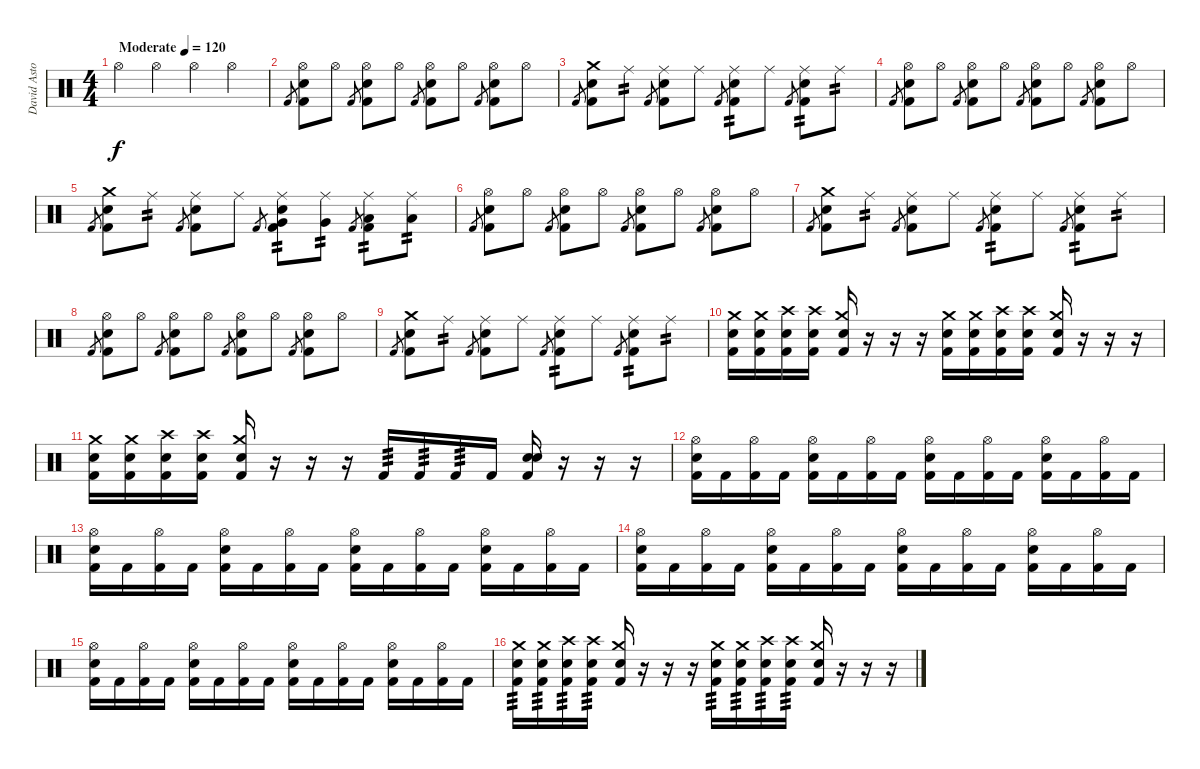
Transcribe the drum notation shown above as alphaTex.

\track ("David Astor" "David Asto") {instrument percussion}
\staff {score}
\articulation defaults
\ts (4 4)
\tempo (120 "Moderate")
\clef neutral
\ks c "Hi-Hat (open)".4{dy f} "Hi-Hat (open)".4 "Hi-Hat (open)".4 "Hi-Hat (open)".4
|
"Kick (hit) 2".8{gr} ("Hi-Hat (open)" "Electric Snare (hit)" "Kick (hit) 2").8 "Hi-Hat (open)".8 "Kick (hit) 2".8{gr} ("Hi-Hat (open)" "Electric Snare (hit)" "Kick (hit) 2").8 "Hi-Hat (open)".8 "Kick (hit) 2".8{gr} ("Hi-Hat (open)" "Electric Snare (hit)" "Kick (hit) 2").8 "Hi-Hat (open)".8 "Kick (hit) 2".8{gr} ("Hi-Hat (open)" "Electric Snare (hit)" "Kick (hit) 2").8 "Hi-Hat (open)".8 |
"Kick (hit) 2".8{gr} ("Crash medium (hit)" "Electric Snare (hit)" "Kick (hit) 2").8 "Ride (middle)".8{tp 2} "Kick (hit) 2".8{gr} ("Ride (middle)" "Electric Snare (hit)" "Kick (hit) 2").8 "Ride (middle)".8 "Kick (hit) 2".8{gr} ("Ride (middle)" "Electric Snare (hit)" "Kick (hit) 2").8{tp 2} "Ride (middle)".8 "Kick (hit) 2".8{gr} ("Ride (middle)" "Electric Snare (hit)" "Kick (hit) 2").8{tp 2} "Ride (middle)".8{tp 2} |
"Kick (hit) 2".8{gr} ("Hi-Hat (open)" "Electric Snare (hit)" "Kick (hit) 2").8 "Hi-Hat (open)".8 "Kick (hit) 2".8{gr} ("Hi-Hat (open)" "Electric Snare (hit)" "Kick (hit) 2").8 "Hi-Hat (open)".8 "Kick (hit) 2".8{gr} ("Hi-Hat (open)" "Electric Snare (hit)" "Kick (hit) 2").8 "Hi-Hat (open)".8 "Kick (hit) 2".8{gr} ("Hi-Hat (open)" "Electric Snare (hit)" "Kick (hit) 2").8 "Hi-Hat (open)".8 |
"Kick (hit) 2".8{gr} ("Crash medium (hit)" "Electric Snare (hit)" "Kick (hit) 2").8 "Ride (middle)".8{tp 2} "Kick (hit) 2".8{gr} ("Ride (middle)" "Electric Snare (hit)" "Kick (hit) 2").8 "Ride (middle)".8 "Kick (hit) 2".8{gr} ("Ride (middle)" "Very Low Tom (hit)" "Snare (hit) 2" "Kick (hit) 2").8{tp 2} ("Ride (middle)" "Very Low Tom (hit)").8{tp 2} "Kick (hit) 2".8{gr} ("Ride (middle)" "Low Tom (hit)" "Kick (hit) 2").8{tp 2} ("Ride (middle)" "Low Floor Tom (hit)").8{tp 2} |
"Kick (hit) 2".8{gr} ("Hi-Hat (open)" "Electric Snare (hit)" "Kick (hit) 2").8 "Hi-Hat (open)".8 "Kick (hit) 2".8{gr} ("Hi-Hat (open)" "Electric Snare (hit)" "Kick (hit) 2").8 "Hi-Hat (open)".8 "Kick (hit) 2".8{gr} ("Hi-Hat (open)" "Electric Snare (hit)" "Kick (hit) 2").8 "Hi-Hat (open)".8 "Kick (hit) 2".8{gr} ("Hi-Hat (open)" "Electric Snare (hit)" "Kick (hit) 2").8 "Hi-Hat (open)".8 |
"Kick (hit) 2".8{gr} ("Crash medium (hit)" "Electric Snare (hit)" "Kick (hit) 2").8 "Ride (middle)".8{tp 2} "Kick (hit) 2".8{gr} ("Ride (middle)" "Electric Snare (hit)" "Kick (hit) 2").8 "Ride (middle)".8 "Kick (hit) 2".8{gr} ("Ride (middle)" "Electric Snare (hit)" "Kick (hit) 2").8{tp 2} "Ride (middle)".8 "Kick (hit) 2".8{gr} ("Ride (middle)" "Electric Snare (hit)" "Kick (hit) 2").8{tp 2} "Ride (middle)".8{tp 2} |
"Kick (hit) 2".8{gr} ("Hi-Hat (open)" "Electric Snare (hit)" "Kick (hit) 2").8 "Hi-Hat (open)".8 "Kick (hit) 2".8{gr} ("Hi-Hat (open)" "Electric Snare (hit)" "Kick (hit) 2").8 "Hi-Hat (open)".8 "Kick (hit) 2".8{gr} ("Hi-Hat (open)" "Electric Snare (hit)" "Kick (hit) 2").8 "Hi-Hat (open)".8 "Kick (hit) 2".8{gr} ("Hi-Hat (open)" "Electric Snare (hit)" "Kick (hit) 2").8 "Hi-Hat (open)".8 |
"Kick (hit) 2".8{gr} ("Crash medium (hit)" "Electric Snare (hit)" "Kick (hit) 2").8 "Ride (middle)".8{tp 2} "Kick (hit) 2".8{gr} ("Ride (middle)" "Electric Snare (hit)" "Kick (hit) 2").8 "Ride (middle)".8 "Kick (hit) 2".8{gr} ("Ride (middle)" "Electric Snare (hit)" "Kick (hit) 2").8{tp 2} "Ride (middle)".8 "Kick (hit) 2".8{gr} ("Ride (middle)" "Electric Snare (hit)" "Kick (hit) 2").8{tp 2} "Ride (middle)".8{tp 2} |
("Crash medium (hit)" "Electric Snare (hit)" "Kick (hit) 2").16 ("Crash medium (hit)" "Electric Snare (hit)" "Kick (hit) 2").16 ("Crash high (hit)" "Electric Snare (hit)" "Kick (hit) 2").16 ("Crash high (hit)" "Electric Snare (hit)" "Kick (hit) 2").16 ("Crash medium (hit)" "Snare (hit) 2" "Kick (hit) 2").16 r.16 r.16 r.16 ("Crash medium (hit)" "Electric Snare (hit)" "Kick (hit) 2").16 ("Crash medium (hit)" "Electric Snare (hit)" "Kick (hit) 2").16 ("Crash high (hit)" "Electric Snare (hit)" "Kick (hit) 2").16 ("Crash high (hit)" "Electric Snare (hit)" "Kick (hit) 2").16 ("Crash medium (hit)" "Snare (hit) 2" "Kick (hit) 2").16 r.16 r.16 r.16 |
("Crash medium (hit)" "Electric Snare (hit)" "Kick (hit) 2").16 ("Crash medium (hit)" "Electric Snare (hit)" "Kick (hit) 2").16 ("Crash high (hit)" "Electric Snare (hit)" "Kick (hit) 2").16 ("Crash high (hit)" "Electric Snare (hit)" "Kick (hit) 2").16 ("Crash medium (hit)" "Snare (hit) 2" "Kick (hit) 2").16 r.16 r.16 r.16 "Kick (hit) 2".16{tp 3} "Kick (hit) 2".16{tp 3} "Kick (hit) 2".16{tp 3} "Kick (hit) 2".16 ("Snare (hit) 2" "Electric Snare (hit)" "Kick (hit) 2").16 r.16 r.16 r.16 |
("Hi-Hat (open)" "Electric Snare (hit)" "Kick (hit) 2").16 "Kick (hit) 2".16 ("Hi-Hat (open)" "Kick (hit) 2").16 "Kick (hit) 2".16 ("Hi-Hat (open)" "Electric Snare (hit)" "Kick (hit) 2").16 "Kick (hit) 2".16 ("Hi-Hat (open)" "Kick (hit) 2").16 "Kick (hit) 2".16 ("Hi-Hat (open)" "Electric Snare (hit)" "Kick (hit) 2").16 "Kick (hit) 2".16 ("Hi-Hat (open)" "Kick (hit) 2").16 "Kick (hit) 2".16 ("Hi-Hat (open)" "Electric Snare (hit)" "Kick (hit) 2").16 "Kick (hit) 2".16 ("Hi-Hat (open)" "Kick (hit) 2").16 "Kick (hit) 2".16 |
("Hi-Hat (open)" "Electric Snare (hit)" "Kick (hit) 2").16 "Kick (hit) 2".16 ("Hi-Hat (open)" "Kick (hit) 2").16 "Kick (hit) 2".16 ("Hi-Hat (open)" "Electric Snare (hit)" "Kick (hit) 2").16 "Kick (hit) 2".16 ("Hi-Hat (open)" "Kick (hit) 2").16 "Kick (hit) 2".16 ("Hi-Hat (open)" "Electric Snare (hit)" "Kick (hit) 2").16 "Kick (hit) 2".16 ("Hi-Hat (open)" "Kick (hit) 2").16 "Kick (hit) 2".16 ("Hi-Hat (open)" "Electric Snare (hit)" "Kick (hit) 2").16 "Kick (hit) 2".16 ("Hi-Hat (open)" "Kick (hit) 2").16 "Kick (hit) 2".16 |
("Hi-Hat (open)" "Electric Snare (hit)" "Kick (hit) 2").16 "Kick (hit) 2".16 ("Hi-Hat (open)" "Kick (hit) 2").16 "Kick (hit) 2".16 ("Hi-Hat (open)" "Electric Snare (hit)" "Kick (hit) 2").16 "Kick (hit) 2".16 ("Hi-Hat (open)" "Kick (hit) 2").16 "Kick (hit) 2".16 ("Hi-Hat (open)" "Electric Snare (hit)" "Kick (hit) 2").16 "Kick (hit) 2".16 ("Hi-Hat (open)" "Kick (hit) 2").16 "Kick (hit) 2".16 ("Hi-Hat (open)" "Electric Snare (hit)" "Kick (hit) 2").16 "Kick (hit) 2".16 ("Hi-Hat (open)" "Kick (hit) 2").16 "Kick (hit) 2".16 |
("Hi-Hat (open)" "Electric Snare (hit)" "Kick (hit) 2").16 "Kick (hit) 2".16 ("Hi-Hat (open)" "Kick (hit) 2").16 "Kick (hit) 2".16 ("Hi-Hat (open)" "Electric Snare (hit)" "Kick (hit) 2").16 "Kick (hit) 2".16 ("Hi-Hat (open)" "Kick (hit) 2").16 "Kick (hit) 2".16 ("Hi-Hat (open)" "Electric Snare (hit)" "Kick (hit) 2").16 "Kick (hit) 2".16 ("Hi-Hat (open)" "Kick (hit) 2").16 "Kick (hit) 2".16 ("Hi-Hat (open)" "Electric Snare (hit)" "Kick (hit) 2").16 "Kick (hit) 2".16 ("Hi-Hat (open)" "Kick (hit) 2").16 "Kick (hit) 2".16 |
("Crash medium (hit)" "Electric Snare (hit)" "Kick (hit) 2").16{tp 3} ("Crash medium (hit)" "Electric Snare (hit)" "Kick (hit) 2").16{tp 3} ("Crash high (hit)" "Electric Snare (hit)" "Kick (hit) 2").16{tp 3} ("Crash high (hit)" "Electric Snare (hit)" "Kick (hit) 2").16{tp 3} ("Crash medium (hit)" "Snare (hit) 2" "Kick (hit) 2").16 r.16 r.16 r.16 ("Crash medium (hit)" "Electric Snare (hit)" "Kick (hit) 2").16{tp 3} ("Crash medium (hit)" "Electric Snare (hit)" "Kick (hit) 2").16{tp 3} ("Crash high (hit)" "Electric Snare (hit)" "Kick (hit) 2").16{tp 3} ("Crash high (hit)" "Electric Snare (hit)" "Kick (hit) 2").16{tp 3} ("Crash medium (hit)" "Snare (hit) 2" "Kick (hit) 2").16 r.16 r.16 r.16
